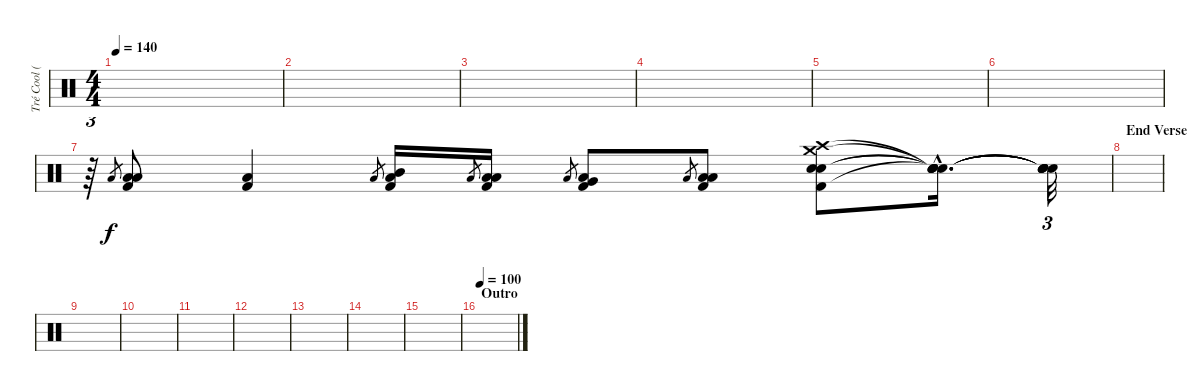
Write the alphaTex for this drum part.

\track ("Tré Cool (Bongos)" "Tré Cool (") {instrument percussion}
\staff {score}
\articulation defaults
\ts (4 4)
\tempo 140
\clef neutral
\ks c
|
|
|
|
|
|
r.64{tu (3 2)} "Low Tom (hit)".8{gr} ("Low Tom (hit)" "Low Tom (hit)" "Kick (hit) 2").8 ("Low Floor Tom (hit)" "Kick (hit) 2").4 "Low Tom (hit)".8{gr} ("Mid Tom (hit)" "Low Tom (hit)" "Kick (hit) 2").16 "Low Tom (hit)".8{gr} ("Low Tom (hit)" "Low Tom (hit)" "Kick (hit) 2").16 "Low Tom (hit)".8{gr} ("Very Low Tom (hit)" "Low Tom (hit)" "Kick (hit) 2").8 "Low Tom (hit)".8{gr} ("Low Floor Tom (hit)" "Low Tom (hit)" "Kick (hit) 2").8 ("Crash high (hit)" "Electric Snare (hit)" "Electric Snare (hit)" "Crash medium (hit)" "Kick (hit) 2").8 ("Snare (hit)"{hac t} "Snare (hit)"{hac t} "Snare (hit)"{hac t} "Snare (hit)"{hac t} "Snare (hit)"{hac t}).16{d} ("Snare (hit)"{t} "Snare (hit)"{t} "Snare (hit)"{t} "Snare (hit)"{t} "Snare (hit)"{t}).32{tu (3 2)} |
\section ("" "End Verse")
|
|
|
|
|
|
|
|
\section ("" "Outro")
\tempo 100
